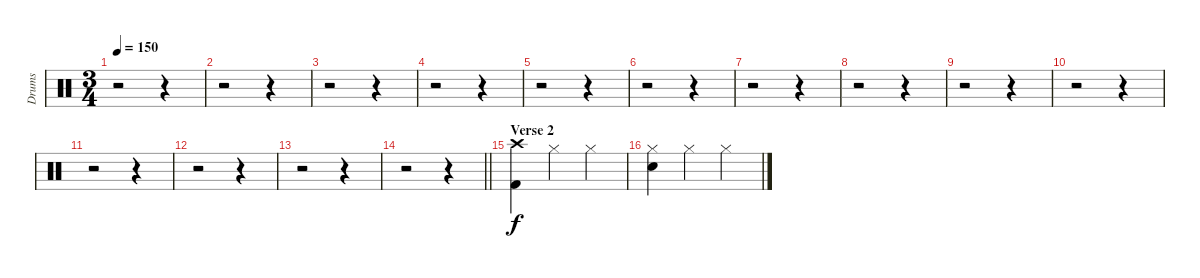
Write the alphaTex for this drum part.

\track ("Drums" "Drums") {instrument percussion}
\staff {score}
\articulation defaults
\ts (3 4)
\tempo 150
\clef neutral
\ks c
r.2{dy f} r.4 |
r.2 r.4 |
r.2 r.4 |
r.2 r.4 |
r.2 r.4 |
r.2 r.4 |
r.2 r.4 |
r.2 r.4 |
r.2 r.4 |
r.2 r.4 |
r.2 r.4 |
r.2 r.4 |
r.2 r.4 |
\barLineRight lightlight
r.2 r.4 |
\section ("" "Verse 2")
("Crash high (hit)" "Kick (hit) 2").4 "Hi-Hat (closed)".4 "Hi-Hat (closed)".4 |
("Hi-Hat (closed)" "Electric Snare (hit)").4 "Hi-Hat (closed)".4 "Hi-Hat (closed)".4
